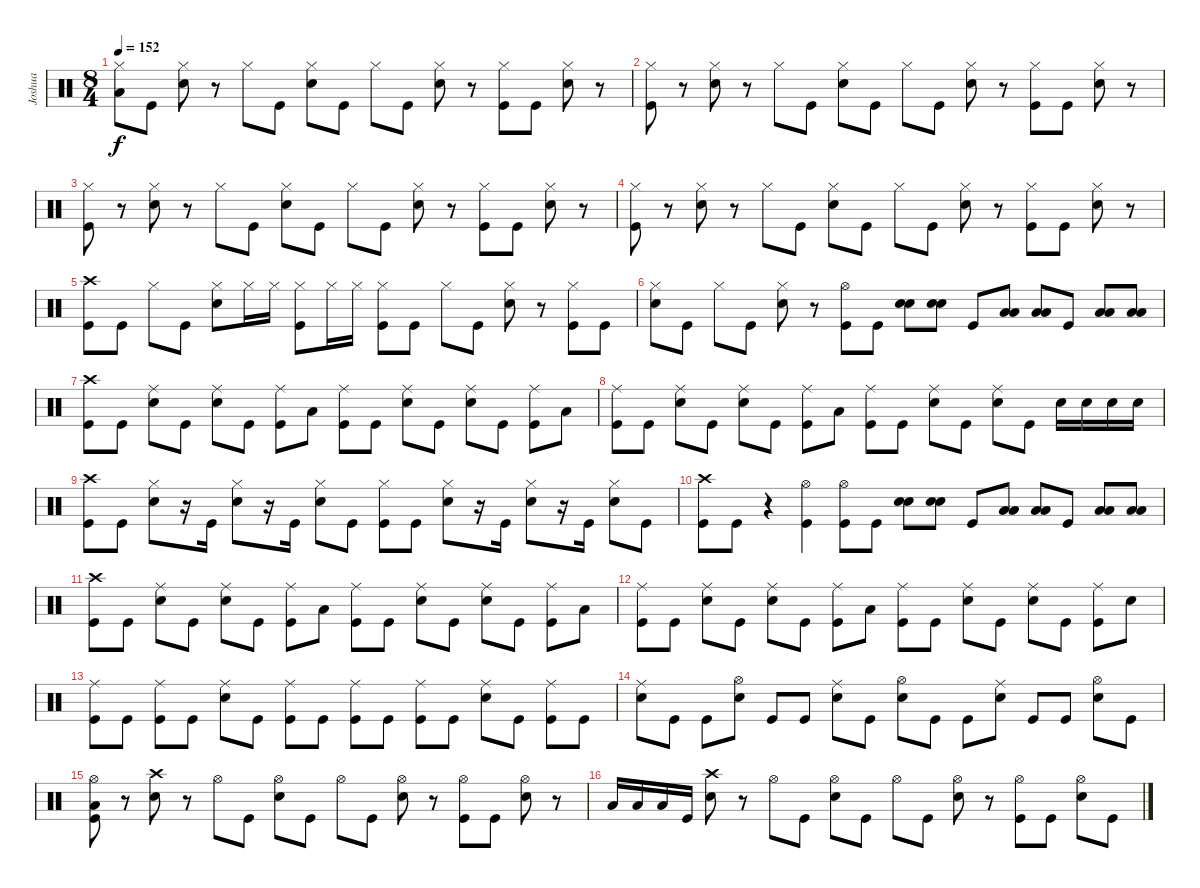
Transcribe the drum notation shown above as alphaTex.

\track ("Joshua" "Joshua") {instrument percussion}
\staff {score}
\articulation defaults
\ts (8 4)
\tempo 152
\clef neutral
\ks c
("Low Tom (hit)" "Hi-Hat (closed)").8{dy f} "Kick (hit)".8 ("Hi-Hat (closed)" "Electric Snare (hit)").8 r.8 "Hi-Hat (closed)".8 "Kick (hit)".8 ("Hi-Hat (closed)" "Electric Snare (hit)").8 "Kick (hit)".8 "Hi-Hat (closed)".8 "Kick (hit)".8 ("Hi-Hat (closed)" "Electric Snare (hit)").8 r.8 ("Hi-Hat (closed)" "Kick (hit)").8 "Kick (hit)".8 ("Hi-Hat (closed)" "Electric Snare (hit)").8 r.8 |
("Hi-Hat (closed)" "Kick (hit)").8 r.8 ("Hi-Hat (closed)" "Electric Snare (hit)").8 r.8 "Hi-Hat (closed)".8 "Kick (hit)".8 ("Hi-Hat (closed)" "Electric Snare (hit)").8 "Kick (hit)".8 "Hi-Hat (closed)".8 "Kick (hit)".8 ("Hi-Hat (closed)" "Electric Snare (hit)").8 r.8 ("Hi-Hat (closed)" "Kick (hit)").8 "Kick (hit)".8 ("Hi-Hat (closed)" "Electric Snare (hit)").8 r.8 |
("Hi-Hat (closed)" "Kick (hit)").8 r.8 ("Hi-Hat (closed)" "Electric Snare (hit)").8 r.8 "Hi-Hat (closed)".8 "Kick (hit)".8 ("Hi-Hat (closed)" "Electric Snare (hit)").8 "Kick (hit)".8 "Hi-Hat (closed)".8 "Kick (hit)".8 ("Hi-Hat (closed)" "Electric Snare (hit)").8 r.8 ("Hi-Hat (closed)" "Kick (hit)").8 "Kick (hit)".8 ("Hi-Hat (closed)" "Electric Snare (hit)").8 r.8 |
("Hi-Hat (closed)" "Kick (hit)").8 r.8 ("Hi-Hat (closed)" "Electric Snare (hit)").8 r.8 "Hi-Hat (closed)".8 "Kick (hit)".8 ("Hi-Hat (closed)" "Electric Snare (hit)").8 "Kick (hit)".8 "Hi-Hat (closed)".8 "Kick (hit)".8 ("Hi-Hat (closed)" "Electric Snare (hit)").8 r.8 ("Hi-Hat (closed)" "Kick (hit)").8 "Kick (hit)".8 ("Hi-Hat (closed)" "Electric Snare (hit)").8 r.8 |
("Crash high (hit)" "Kick (hit)").8 "Kick (hit)".8 "Hi-Hat (closed)".8 "Kick (hit)".8 ("Hi-Hat (closed)" "Electric Snare (hit)").8 "Hi-Hat (closed)".16 "Hi-Hat (closed)".16 ("Hi-Hat (closed)" "Kick (hit)").8 "Hi-Hat (closed)".16 "Hi-Hat (closed)".16 ("Hi-Hat (closed)" "Kick (hit)").8 "Kick (hit)".8 "Hi-Hat (closed)".8 "Kick (hit)".8 ("Hi-Hat (closed)" "Electric Snare (hit)").8 r.8 ("Hi-Hat (closed)" "Kick (hit)").8 "Kick (hit)".8 |
("Hi-Hat (closed)" "Electric Snare (hit)").8 "Kick (hit)".8 "Hi-Hat (closed)".8 "Kick (hit)".8 ("Hi-Hat (closed)" "Electric Snare (hit)").8 r.8 ("Hi-Hat (open)" "Kick (hit)").8 "Kick (hit)".8 ("Electric Snare (hit)" "Electric Snare (hit)").8 ("Electric Snare (hit)" "Electric Snare (hit)").8 "Kick (hit)".8 ("Low Tom (hit)" "Low Tom (hit)").8 ("Low Tom (hit)" "Low Tom (hit)").8 "Kick (hit)".8 ("Low Floor Tom (hit)" "Low Floor Tom (hit)").8 ("Low Floor Tom (hit)" "Low Floor Tom (hit)").8 |
("Crash high (hit)" "Kick (hit)").8 "Kick (hit)".8 ("Ride (middle)" "Electric Snare (hit)").8 "Kick (hit)".8 ("Ride (middle)" "Electric Snare (hit)").8 "Kick (hit)".8 ("Ride (middle)" "Kick (hit)").8 "Low Tom (hit)".8 ("Ride (middle)" "Kick (hit)").8 "Kick (hit)".8 ("Ride (middle)" "Electric Snare (hit)").8 "Kick (hit)".8 ("Ride (middle)" "Electric Snare (hit)").8 "Kick (hit)".8 ("Ride (middle)" "Kick (hit)").8 "Low Tom (hit)".8 |
("Ride (middle)" "Kick (hit)").8 "Kick (hit)".8 ("Ride (middle)" "Electric Snare (hit)").8 "Kick (hit)".8 ("Ride (middle)" "Electric Snare (hit)").8 "Kick (hit)".8 ("Ride (middle)" "Kick (hit)").8 "Low Tom (hit)".8 ("Ride (middle)" "Kick (hit)").8 "Kick (hit)".8 ("Ride (middle)" "Electric Snare (hit)").8 "Kick (hit)".8 ("Ride (middle)" "Electric Snare (hit)").8 "Kick (hit)".8 "Electric Snare (hit)".16 "Electric Snare (hit)".16 "Electric Snare (hit)".16 "Electric Snare (hit)".16 |
("Crash high (hit)" "Kick (hit)").8 "Kick (hit)".8 ("Hi-Hat (closed)" "Electric Snare (hit)").8 r.16 "Kick (hit)".16 ("Hi-Hat (closed)" "Electric Snare (hit)").8 r.16 "Kick (hit)".16 ("Hi-Hat (closed)" "Electric Snare (hit)").8 "Kick (hit)".8 ("Hi-Hat (closed)" "Kick (hit)").8 "Kick (hit)".8 ("Hi-Hat (closed)" "Electric Snare (hit)").8 r.16 "Kick (hit)".16 ("Hi-Hat (closed)" "Electric Snare (hit)").8 r.16 "Kick (hit)".16 ("Hi-Hat (closed)" "Electric Snare (hit)").8 "Kick (hit)".8 |
("Crash high (hit)" "Kick (hit)").8 "Kick (hit)".8 r.4 ("Hi-Hat (open)" "Kick (hit)").4 ("Hi-Hat (open)" "Kick (hit)").8 "Kick (hit)".8 ("Electric Snare (hit)" "Electric Snare (hit)").8 ("Electric Snare (hit)" "Electric Snare (hit)").8 "Kick (hit)".8 ("Low Tom (hit)" "Low Tom (hit)").8 ("Low Tom (hit)" "Low Tom (hit)").8 "Kick (hit)".8 ("Low Floor Tom (hit)" "Low Floor Tom (hit)").8 ("Low Floor Tom (hit)" "Low Floor Tom (hit)").8 |
("Crash high (hit)" "Kick (hit)").8 "Kick (hit)".8 ("Ride (middle)" "Electric Snare (hit)").8 "Kick (hit)".8 ("Ride (middle)" "Electric Snare (hit)").8 "Kick (hit)".8 ("Ride (middle)" "Kick (hit)").8 "Low Tom (hit)".8 ("Ride (middle)" "Kick (hit)").8 "Kick (hit)".8 ("Ride (middle)" "Electric Snare (hit)").8 "Kick (hit)".8 ("Ride (middle)" "Electric Snare (hit)").8 "Kick (hit)".8 ("Ride (middle)" "Kick (hit)").8 "Low Tom (hit)".8 |
("Ride (middle)" "Kick (hit)").8 "Kick (hit)".8 ("Ride (middle)" "Electric Snare (hit)").8 "Kick (hit)".8 ("Ride (middle)" "Electric Snare (hit)").8 "Kick (hit)".8 ("Ride (middle)" "Kick (hit)").8 "Low Tom (hit)".8 ("Ride (middle)" "Kick (hit)").8 "Kick (hit)".8 ("Ride (middle)" "Electric Snare (hit)").8 "Kick (hit)".8 ("Ride (middle)" "Electric Snare (hit)").8 "Kick (hit)".8 ("Ride (middle)" "Kick (hit)").8 "Electric Snare (hit)".8 |
("Ride (middle)" "Kick (hit)").8 "Kick (hit)".8 ("Ride (middle)" "Kick (hit)").8 "Kick (hit)".8 ("Ride (middle)" "Electric Snare (hit)").8 "Kick (hit)".8 ("Ride (middle)" "Kick (hit)").8 "Kick (hit)".8 ("Ride (middle)" "Kick (hit)").8 "Kick (hit)".8 ("Ride (middle)" "Kick (hit)").8 "Kick (hit)".8 ("Ride (middle)" "Electric Snare (hit)").8 "Kick (hit)".8 ("Ride (middle)" "Kick (hit)").8 "Kick (hit)".8 |
("Ride (middle)" "Electric Snare (hit)").8 "Kick (hit)".8 "Kick (hit)".8 ("Hi-Hat (open)" "Electric Snare (hit)").8 "Kick (hit)".8 "Kick (hit)".8 ("Ride (middle)" "Electric Snare (hit)").8 "Kick (hit)".8 ("Hi-Hat (open)" "Electric Snare (hit)").8 "Kick (hit)".8 "Kick (hit)".8 ("Ride (middle)" "Electric Snare (hit)").8 "Kick (hit)".8 "Kick (hit)".8 ("Hi-Hat (open)" "Electric Snare (hit)").8 "Kick (hit)".8 |
("Low Tom (hit)" "Hi-Hat (open)" "Kick (hit)").8 r.8 ("Crash high (hit)" "Electric Snare (hit)").8 r.8 "Hi-Hat (open)".8 "Kick (hit)".8 ("Hi-Hat (open)" "Electric Snare (hit)").8 "Kick (hit)".8 "Hi-Hat (open)".8 "Kick (hit)".8 ("Hi-Hat (open)" "Electric Snare (hit)").8 r.8 ("Hi-Hat (open)" "Kick (hit)").8 "Kick (hit)".8 ("Hi-Hat (open)" "Electric Snare (hit)").8 r.8 |
"Low Floor Tom (hit)".16 "Low Tom (hit)".16 "Low Floor Tom (hit)".16 "Kick (hit)".16 ("Crash high (hit)" "Electric Snare (hit)").8 r.8 "Hi-Hat (open)".8 "Kick (hit)".8 ("Hi-Hat (open)" "Electric Snare (hit)").8 "Kick (hit)".8 "Hi-Hat (open)".8 "Kick (hit)".8 ("Hi-Hat (open)" "Electric Snare (hit)").8 r.8 ("Hi-Hat (open)" "Kick (hit)").8 "Kick (hit)".8 ("Hi-Hat (open)" "Electric Snare (hit)").8 "Kick (hit)".8
